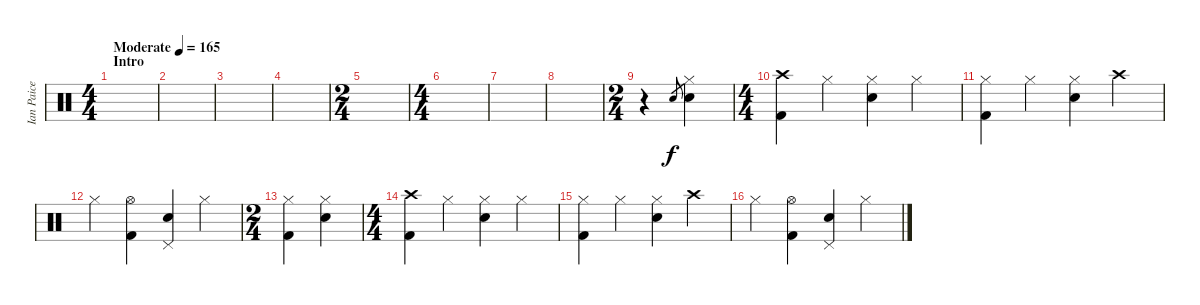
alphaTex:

\track ("Ian Paice" "Ian Paice") {instrument percussion}
\staff {score}
\articulation defaults
\ts (4 4)
\section ("" "Intro")
\tempo (165 "Moderate")
\clef neutral
\ks c
|
|
|
|
\ts (2 4)
|
\ts (4 4)
|
|
|
\ts (2 4)
r.4 "Snare (hit) 2".8{gr} ("Hi-Hat (closed)" "Snare (hit) 2").4 |
\ts (4 4)
("Crash high (hit)" "Kick (hit) 2").4 "Hi-Hat (closed)".4 ("Hi-Hat (closed)" "Snare (hit) 2").4 "Hi-Hat (closed)".4 |
("Hi-Hat (closed)" "Kick (hit) 2").4 "Hi-Hat (closed)".4 ("Hi-Hat (closed)" "Snare (hit) 2").4 "Crash high (hit)".4 |
"Hi-Hat (closed)".4 ("Hi-Hat (open)" "Kick (hit) 2").4 ("Pedal Hi-Hat (hit)" "Snare (hit) 2").4 "Hi-Hat (closed)".4 |
\ts (2 4)
("Hi-Hat (closed)" "Kick (hit) 2").4 ("Hi-Hat (closed)" "Snare (hit) 2").4 |
\ts (4 4)
("Crash high (hit)" "Kick (hit) 2").4 "Hi-Hat (closed)".4 ("Hi-Hat (closed)" "Snare (hit) 2").4 "Hi-Hat (closed)".4 |
("Hi-Hat (closed)" "Kick (hit) 2").4 "Hi-Hat (closed)".4 ("Hi-Hat (closed)" "Snare (hit) 2").4 "Crash high (hit)".4 |
"Hi-Hat (closed)".4 ("Hi-Hat (open)" "Kick (hit) 2").4 ("Pedal Hi-Hat (hit)" "Snare (hit) 2").4 "Hi-Hat (closed)".4
